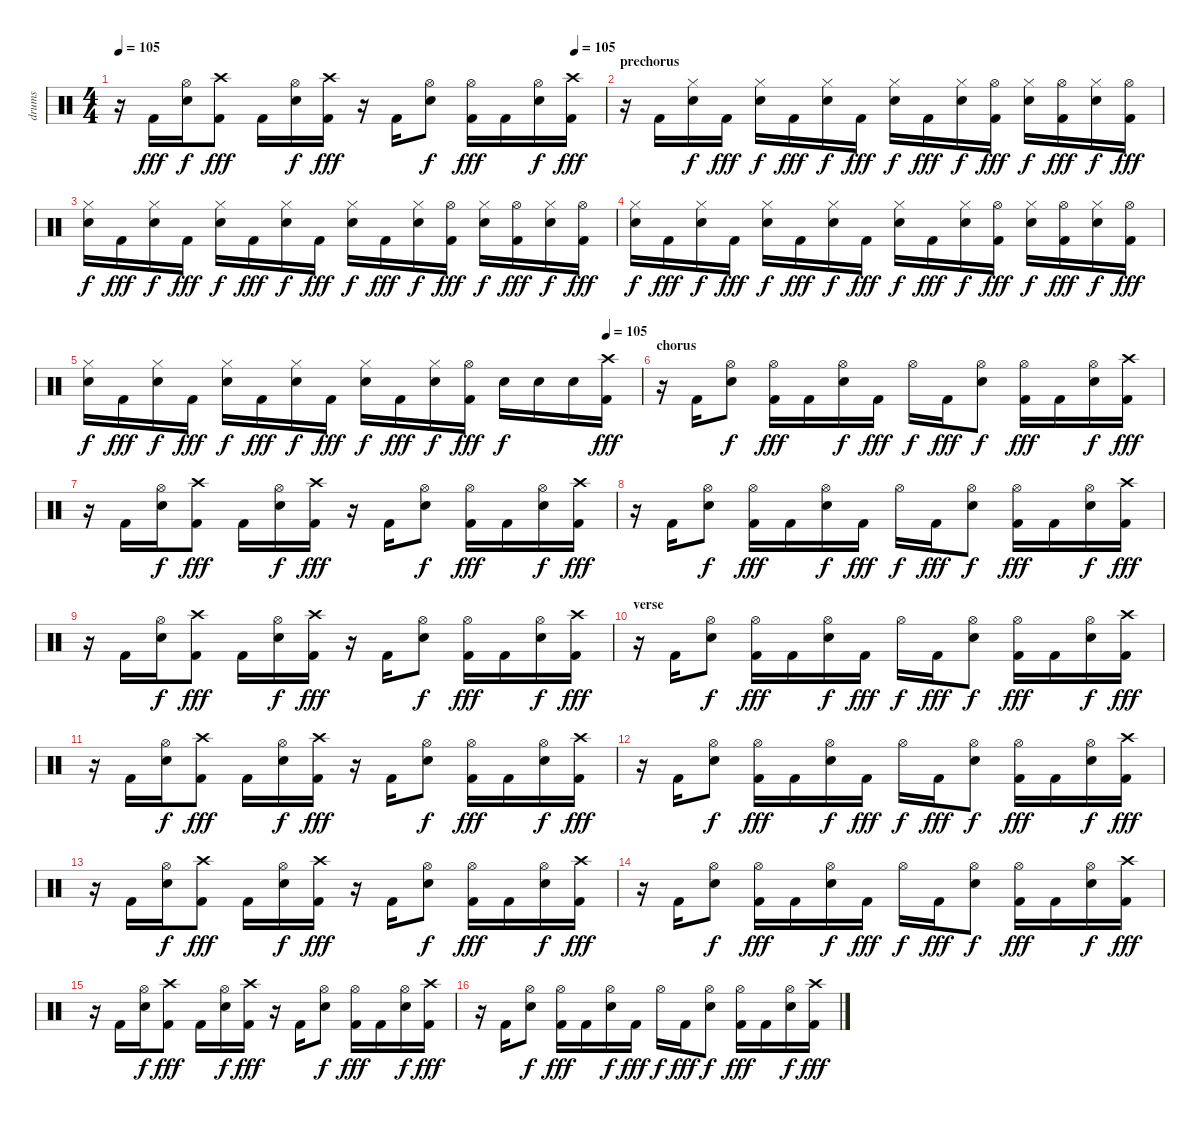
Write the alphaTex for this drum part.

\track ("drums" "drums") {instrument percussion}
\staff {score}
\articulation defaults
\ts (4 4)
\tempo 105
\tempo (105 0.9375)
\clef neutral
\ks c
r.16{dy fff} "Kick (hit) 2".16 ("Hi-Hat (open)" "Snare (hit) 2").16{dy f} ("Crash high (hit)" "Kick (hit) 2").8{dy fff} "Kick (hit) 2".16 ("Hi-Hat (open)" "Snare (hit) 2").16{dy f} ("Crash high (hit)" "Kick (hit) 2").16{dy fff} r.16 "Kick (hit) 2".16 ("Hi-Hat (open)" "Snare (hit) 2").8{dy f} ("Hi-Hat (open)" "Kick (hit) 2").16{dy fff} "Kick (hit) 2".16 ("Hi-Hat (open)" "Snare (hit) 2").16{dy f} ("Crash high (hit)" "Kick (hit) 2").16{dy fff} |
\section ("" "prechorus")
r.16 "Kick (hit) 2".16 ("Hi-Hat (closed)" "Snare (hit) 2").16{dy f} "Kick (hit) 2".16{dy fff} ("Hi-Hat (closed)" "Snare (hit) 2").16{dy f} "Kick (hit) 2".16{dy fff} ("Hi-Hat (closed)" "Snare (hit) 2").16{dy f} "Kick (hit) 2".16{dy fff} ("Hi-Hat (closed)" "Snare (hit) 2").16{dy f} "Kick (hit) 2".16{dy fff} ("Hi-Hat (closed)" "Snare (hit) 2").16{dy f} ("Hi-Hat (open)" "Kick (hit) 2").16{dy fff} ("Hi-Hat (closed)" "Snare (hit) 2").16{dy f} ("Hi-Hat (open)" "Kick (hit) 2").16{dy fff} ("Hi-Hat (closed)" "Snare (hit) 2").16{dy f} ("Hi-Hat (open)" "Kick (hit) 2").16{dy fff} |
("Hi-Hat (closed)" "Snare (hit) 2").16{dy f} "Kick (hit) 2".16{dy fff} ("Hi-Hat (closed)" "Snare (hit) 2").16{dy f} "Kick (hit) 2".16{dy fff} ("Hi-Hat (closed)" "Snare (hit) 2").16{dy f} "Kick (hit) 2".16{dy fff} ("Hi-Hat (closed)" "Snare (hit) 2").16{dy f} "Kick (hit) 2".16{dy fff} ("Hi-Hat (closed)" "Snare (hit) 2").16{dy f} "Kick (hit) 2".16{dy fff} ("Hi-Hat (closed)" "Snare (hit) 2").16{dy f} ("Hi-Hat (open)" "Kick (hit) 2").16{dy fff} ("Hi-Hat (closed)" "Snare (hit) 2").16{dy f} ("Hi-Hat (open)" "Kick (hit) 2").16{dy fff} ("Hi-Hat (closed)" "Snare (hit) 2").16{dy f} ("Hi-Hat (open)" "Kick (hit) 2").16{dy fff} |
("Hi-Hat (closed)" "Snare (hit) 2").16{dy f} "Kick (hit) 2".16{dy fff} ("Hi-Hat (closed)" "Snare (hit) 2").16{dy f} "Kick (hit) 2".16{dy fff} ("Hi-Hat (closed)" "Snare (hit) 2").16{dy f} "Kick (hit) 2".16{dy fff} ("Hi-Hat (closed)" "Snare (hit) 2").16{dy f} "Kick (hit) 2".16{dy fff} ("Hi-Hat (closed)" "Snare (hit) 2").16{dy f} "Kick (hit) 2".16{dy fff} ("Hi-Hat (closed)" "Snare (hit) 2").16{dy f} ("Hi-Hat (open)" "Kick (hit) 2").16{dy fff} ("Hi-Hat (closed)" "Snare (hit) 2").16{dy f} ("Hi-Hat (open)" "Kick (hit) 2").16{dy fff} ("Hi-Hat (closed)" "Snare (hit) 2").16{dy f} ("Hi-Hat (open)" "Kick (hit) 2").16{dy fff} |
\tempo (105 0.9375)
("Hi-Hat (closed)" "Snare (hit) 2").16{dy f} "Kick (hit) 2".16{dy fff} ("Hi-Hat (closed)" "Snare (hit) 2").16{dy f} "Kick (hit) 2".16{dy fff} ("Hi-Hat (closed)" "Snare (hit) 2").16{dy f} "Kick (hit) 2".16{dy fff} ("Hi-Hat (closed)" "Snare (hit) 2").16{dy f} "Kick (hit) 2".16{dy fff} ("Hi-Hat (closed)" "Snare (hit) 2").16{dy f} "Kick (hit) 2".16{dy fff} ("Hi-Hat (closed)" "Snare (hit) 2").16{dy f} ("Hi-Hat (open)" "Kick (hit) 2").16{dy fff} "Snare (hit) 2".16{dy f} "Snare (hit) 2".16 "Snare (hit) 2".16 ("Crash high (hit)" "Kick (hit) 2").16{dy fff} |
\section ("" "chorus")
r.16 "Kick (hit) 2".16 ("Hi-Hat (open)" "Snare (hit) 2").8{dy f} ("Hi-Hat (open)" "Kick (hit) 2").16{dy fff} "Kick (hit) 2".16 ("Hi-Hat (open)" "Snare (hit) 2").16{dy f} "Kick (hit) 2".16{dy fff} "Hi-Hat (open)".16{dy f} "Kick (hit) 2".16{dy fff} ("Hi-Hat (open)" "Snare (hit) 2").8{dy f} ("Hi-Hat (open)" "Kick (hit) 2").16{dy fff} "Kick (hit) 2".16 ("Hi-Hat (open)" "Snare (hit) 2").16{dy f} ("Crash high (hit)" "Kick (hit) 2").16{dy fff} |
r.16 "Kick (hit) 2".16 ("Hi-Hat (open)" "Snare (hit) 2").16{dy f} ("Crash high (hit)" "Kick (hit) 2").8{dy fff} "Kick (hit) 2".16 ("Hi-Hat (open)" "Snare (hit) 2").16{dy f} ("Crash high (hit)" "Kick (hit) 2").16{dy fff} r.16 "Kick (hit) 2".16 ("Hi-Hat (open)" "Snare (hit) 2").8{dy f} ("Hi-Hat (open)" "Kick (hit) 2").16{dy fff} "Kick (hit) 2".16 ("Hi-Hat (open)" "Snare (hit) 2").16{dy f} ("Crash high (hit)" "Kick (hit) 2").16{dy fff} |
r.16 "Kick (hit) 2".16 ("Hi-Hat (open)" "Snare (hit) 2").8{dy f} ("Hi-Hat (open)" "Kick (hit) 2").16{dy fff} "Kick (hit) 2".16 ("Hi-Hat (open)" "Snare (hit) 2").16{dy f} "Kick (hit) 2".16{dy fff} "Hi-Hat (open)".16{dy f} "Kick (hit) 2".16{dy fff} ("Hi-Hat (open)" "Snare (hit) 2").8{dy f} ("Hi-Hat (open)" "Kick (hit) 2").16{dy fff} "Kick (hit) 2".16 ("Hi-Hat (open)" "Snare (hit) 2").16{dy f} ("Crash high (hit)" "Kick (hit) 2").16{dy fff} |
r.16 "Kick (hit) 2".16 ("Hi-Hat (open)" "Snare (hit) 2").16{dy f} ("Crash high (hit)" "Kick (hit) 2").8{dy fff} "Kick (hit) 2".16 ("Hi-Hat (open)" "Snare (hit) 2").16{dy f} ("Crash high (hit)" "Kick (hit) 2").16{dy fff} r.16 "Kick (hit) 2".16 ("Hi-Hat (open)" "Snare (hit) 2").8{dy f} ("Hi-Hat (open)" "Kick (hit) 2").16{dy fff} "Kick (hit) 2".16 ("Hi-Hat (open)" "Snare (hit) 2").16{dy f} ("Crash high (hit)" "Kick (hit) 2").16{dy fff} |
\section ("" "verse")
r.16 "Kick (hit) 2".16 ("Hi-Hat (open)" "Snare (hit) 2").8{dy f} ("Hi-Hat (open)" "Kick (hit) 2").16{dy fff} "Kick (hit) 2".16 ("Hi-Hat (open)" "Snare (hit) 2").16{dy f} "Kick (hit) 2".16{dy fff} "Hi-Hat (open)".16{dy f} "Kick (hit) 2".16{dy fff} ("Hi-Hat (open)" "Snare (hit) 2").8{dy f} ("Hi-Hat (open)" "Kick (hit) 2").16{dy fff} "Kick (hit) 2".16 ("Hi-Hat (open)" "Snare (hit) 2").16{dy f} ("Crash high (hit)" "Kick (hit) 2").16{dy fff} |
r.16 "Kick (hit) 2".16 ("Hi-Hat (open)" "Snare (hit) 2").16{dy f} ("Crash high (hit)" "Kick (hit) 2").8{dy fff} "Kick (hit) 2".16 ("Hi-Hat (open)" "Snare (hit) 2").16{dy f} ("Crash high (hit)" "Kick (hit) 2").16{dy fff} r.16 "Kick (hit) 2".16 ("Hi-Hat (open)" "Snare (hit) 2").8{dy f} ("Hi-Hat (open)" "Kick (hit) 2").16{dy fff} "Kick (hit) 2".16 ("Hi-Hat (open)" "Snare (hit) 2").16{dy f} ("Crash high (hit)" "Kick (hit) 2").16{dy fff} |
r.16 "Kick (hit) 2".16 ("Hi-Hat (open)" "Snare (hit) 2").8{dy f} ("Hi-Hat (open)" "Kick (hit) 2").16{dy fff} "Kick (hit) 2".16 ("Hi-Hat (open)" "Snare (hit) 2").16{dy f} "Kick (hit) 2".16{dy fff} "Hi-Hat (open)".16{dy f} "Kick (hit) 2".16{dy fff} ("Hi-Hat (open)" "Snare (hit) 2").8{dy f} ("Hi-Hat (open)" "Kick (hit) 2").16{dy fff} "Kick (hit) 2".16 ("Hi-Hat (open)" "Snare (hit) 2").16{dy f} ("Crash high (hit)" "Kick (hit) 2").16{dy fff} |
r.16 "Kick (hit) 2".16 ("Hi-Hat (open)" "Snare (hit) 2").16{dy f} ("Crash high (hit)" "Kick (hit) 2").8{dy fff} "Kick (hit) 2".16 ("Hi-Hat (open)" "Snare (hit) 2").16{dy f} ("Crash high (hit)" "Kick (hit) 2").16{dy fff} r.16 "Kick (hit) 2".16 ("Hi-Hat (open)" "Snare (hit) 2").8{dy f} ("Hi-Hat (open)" "Kick (hit) 2").16{dy fff} "Kick (hit) 2".16 ("Hi-Hat (open)" "Snare (hit) 2").16{dy f} ("Crash high (hit)" "Kick (hit) 2").16{dy fff} |
r.16 "Kick (hit) 2".16 ("Hi-Hat (open)" "Snare (hit) 2").8{dy f} ("Hi-Hat (open)" "Kick (hit) 2").16{dy fff} "Kick (hit) 2".16 ("Hi-Hat (open)" "Snare (hit) 2").16{dy f} "Kick (hit) 2".16{dy fff} "Hi-Hat (open)".16{dy f} "Kick (hit) 2".16{dy fff} ("Hi-Hat (open)" "Snare (hit) 2").8{dy f} ("Hi-Hat (open)" "Kick (hit) 2").16{dy fff} "Kick (hit) 2".16 ("Hi-Hat (open)" "Snare (hit) 2").16{dy f} ("Crash high (hit)" "Kick (hit) 2").16{dy fff} |
r.16 "Kick (hit) 2".16 ("Hi-Hat (open)" "Snare (hit) 2").16{dy f} ("Crash high (hit)" "Kick (hit) 2").8{dy fff} "Kick (hit) 2".16 ("Hi-Hat (open)" "Snare (hit) 2").16{dy f} ("Crash high (hit)" "Kick (hit) 2").16{dy fff} r.16 "Kick (hit) 2".16 ("Hi-Hat (open)" "Snare (hit) 2").8{dy f} ("Hi-Hat (open)" "Kick (hit) 2").16{dy fff} "Kick (hit) 2".16 ("Hi-Hat (open)" "Snare (hit) 2").16{dy f} ("Crash high (hit)" "Kick (hit) 2").16{dy fff} |
r.16 "Kick (hit) 2".16 ("Hi-Hat (open)" "Snare (hit) 2").8{dy f} ("Hi-Hat (open)" "Kick (hit) 2").16{dy fff} "Kick (hit) 2".16 ("Hi-Hat (open)" "Snare (hit) 2").16{dy f} "Kick (hit) 2".16{dy fff} "Hi-Hat (open)".16{dy f} "Kick (hit) 2".16{dy fff} ("Hi-Hat (open)" "Snare (hit) 2").8{dy f} ("Hi-Hat (open)" "Kick (hit) 2").16{dy fff} "Kick (hit) 2".16 ("Hi-Hat (open)" "Snare (hit) 2").16{dy f} ("Crash high (hit)" "Kick (hit) 2").16{dy fff}
